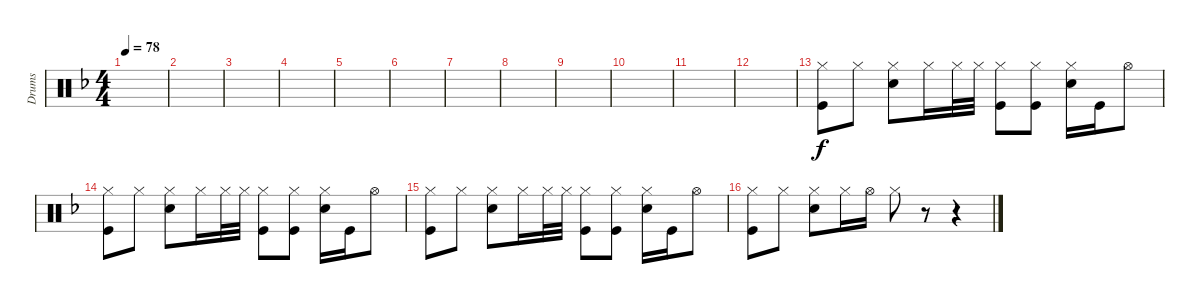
\track ("Drums" "Drums") {instrument percussion}
\staff {score}
\articulation defaults
\ts (4 4)
\tempo 78
\clef neutral
\ks dminor
|
|
|
|
|
|
|
|
|
|
|
|
("Hi-Hat (closed)" "Kick (hit)").8 "Hi-Hat (closed)".8 ("Hi-Hat (closed)" "Snare (hit) 2").8 "Hi-Hat (closed)".16 "Hi-Hat (closed)".32 "Hi-Hat (closed)".32 ("Hi-Hat (closed)" "Kick (hit)").8 ("Hi-Hat (closed)" "Kick (hit)").8 ("Hi-Hat (closed)" "Snare (hit) 2").16 "Kick (hit)".16 "Hi-Hat (open)".8 |
("Hi-Hat (closed)" "Kick (hit)").8 "Hi-Hat (closed)".8 ("Hi-Hat (closed)" "Snare (hit) 2").8 "Hi-Hat (closed)".16 "Hi-Hat (closed)".32 "Hi-Hat (closed)".32 ("Hi-Hat (closed)" "Kick (hit)").8 ("Hi-Hat (closed)" "Kick (hit)").8 ("Hi-Hat (closed)" "Snare (hit) 2").16 "Kick (hit)".16 "Hi-Hat (open)".8 |
("Hi-Hat (closed)" "Kick (hit)").8 "Hi-Hat (closed)".8 ("Hi-Hat (closed)" "Snare (hit) 2").8 "Hi-Hat (closed)".16 "Hi-Hat (closed)".32 "Hi-Hat (closed)".32 ("Hi-Hat (closed)" "Kick (hit)").8 ("Hi-Hat (closed)" "Kick (hit)").8 ("Hi-Hat (closed)" "Snare (hit) 2").16 "Kick (hit)".16 "Hi-Hat (open)".8 |
("Hi-Hat (closed)" "Kick (hit)").8 "Hi-Hat (closed)".8 ("Hi-Hat (closed)" "Snare (hit) 2").8 "Hi-Hat (closed)".16 "Hi-Hat (open)".16 "Hi-Hat (closed)".8 r.8 r.4
